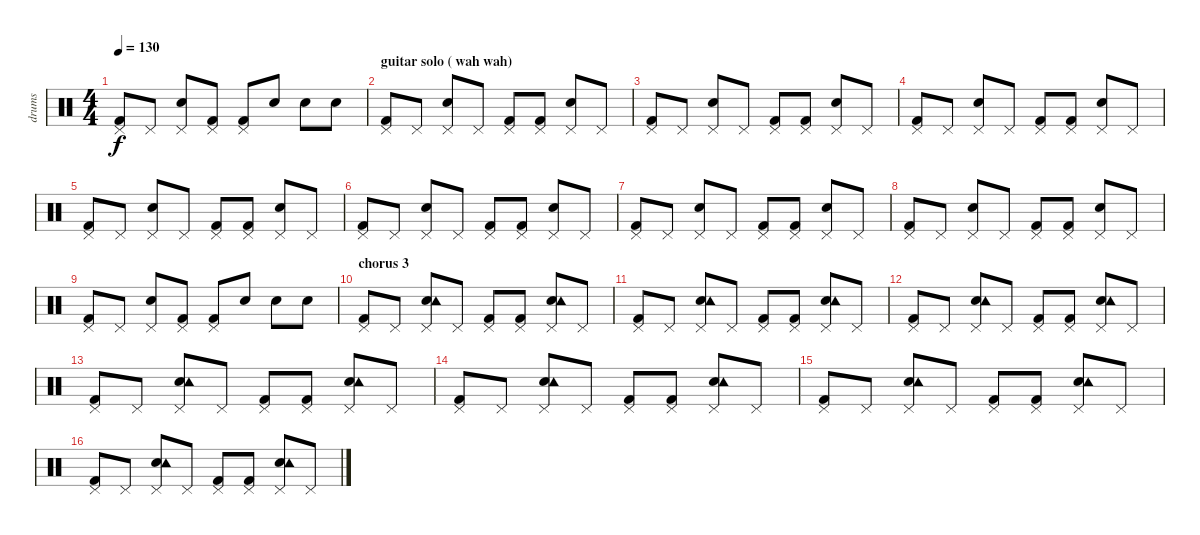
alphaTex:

\track ("drums" "drums") {instrument percussion}
\staff {score}
\articulation defaults
\ts (4 4)
\tempo 130
\clef neutral
\ks c
("Kick (hit) 2" "Pedal Hi-Hat (hit)").8{dy f} "Pedal Hi-Hat (hit)".8 ("Snare (hit) 2" "Pedal Hi-Hat (hit)").8 ("Kick (hit) 2" "Pedal Hi-Hat (hit)").8 ("Kick (hit) 2" "Pedal Hi-Hat (hit)").8 "Snare (hit) 2"{tr (38 16)}.8 "Snare (hit) 2"{tr (38 16)}.8 "Snare (hit) 2"{tr (38 16)}.8 |
\section ("" "guitar solo ( wah wah)")
("Kick (hit) 2" "Pedal Hi-Hat (hit)").8 "Pedal Hi-Hat (hit)".8 ("Snare (hit) 2" "Pedal Hi-Hat (hit)").8 "Pedal Hi-Hat (hit)".8 ("Kick (hit) 2" "Pedal Hi-Hat (hit)").8 ("Kick (hit) 2" "Pedal Hi-Hat (hit)").8 ("Snare (hit) 2" "Pedal Hi-Hat (hit)").8 "Pedal Hi-Hat (hit)".8 |
("Kick (hit) 2" "Pedal Hi-Hat (hit)").8 "Pedal Hi-Hat (hit)".8 ("Snare (hit) 2" "Pedal Hi-Hat (hit)").8 "Pedal Hi-Hat (hit)".8 ("Kick (hit) 2" "Pedal Hi-Hat (hit)").8 ("Kick (hit) 2" "Pedal Hi-Hat (hit)").8 ("Snare (hit) 2" "Pedal Hi-Hat (hit)").8 "Pedal Hi-Hat (hit)".8 |
("Kick (hit) 2" "Pedal Hi-Hat (hit)").8 "Pedal Hi-Hat (hit)".8 ("Snare (hit) 2" "Pedal Hi-Hat (hit)").8 "Pedal Hi-Hat (hit)".8 ("Kick (hit) 2" "Pedal Hi-Hat (hit)").8 ("Kick (hit) 2" "Pedal Hi-Hat (hit)").8 ("Snare (hit) 2" "Pedal Hi-Hat (hit)").8 "Pedal Hi-Hat (hit)".8 |
("Kick (hit) 2" "Pedal Hi-Hat (hit)").8 "Pedal Hi-Hat (hit)".8 ("Snare (hit) 2" "Pedal Hi-Hat (hit)").8 "Pedal Hi-Hat (hit)".8 ("Kick (hit) 2" "Pedal Hi-Hat (hit)").8 ("Kick (hit) 2" "Pedal Hi-Hat (hit)").8 ("Snare (hit) 2" "Pedal Hi-Hat (hit)").8 "Pedal Hi-Hat (hit)".8 |
("Kick (hit) 2" "Pedal Hi-Hat (hit)").8 "Pedal Hi-Hat (hit)".8 ("Snare (hit) 2" "Pedal Hi-Hat (hit)").8 "Pedal Hi-Hat (hit)".8 ("Kick (hit) 2" "Pedal Hi-Hat (hit)").8 ("Kick (hit) 2" "Pedal Hi-Hat (hit)").8 ("Snare (hit) 2" "Pedal Hi-Hat (hit)").8 "Pedal Hi-Hat (hit)".8 |
("Kick (hit) 2" "Pedal Hi-Hat (hit)").8 "Pedal Hi-Hat (hit)".8 ("Snare (hit) 2" "Pedal Hi-Hat (hit)").8 "Pedal Hi-Hat (hit)".8 ("Kick (hit) 2" "Pedal Hi-Hat (hit)").8 ("Kick (hit) 2" "Pedal Hi-Hat (hit)").8 ("Snare (hit) 2" "Pedal Hi-Hat (hit)").8 "Pedal Hi-Hat (hit)".8 |
("Kick (hit) 2" "Pedal Hi-Hat (hit)").8 "Pedal Hi-Hat (hit)".8 ("Snare (hit) 2" "Pedal Hi-Hat (hit)").8 "Pedal Hi-Hat (hit)".8 ("Kick (hit) 2" "Pedal Hi-Hat (hit)").8 ("Kick (hit) 2" "Pedal Hi-Hat (hit)").8 ("Snare (hit) 2" "Pedal Hi-Hat (hit)").8 "Pedal Hi-Hat (hit)".8 |
("Kick (hit) 2" "Pedal Hi-Hat (hit)").8 "Pedal Hi-Hat (hit)".8 ("Snare (hit) 2" "Pedal Hi-Hat (hit)").8 ("Kick (hit) 2" "Pedal Hi-Hat (hit)").8 ("Kick (hit) 2" "Pedal Hi-Hat (hit)").8 "Snare (hit) 2"{tr (38 16)}.8 "Snare (hit) 2"{tr (38 16)}.8 "Snare (hit) 2"{tr (38 16)}.8 |
\section ("" "chorus 3")
("Kick (hit) 2" "Pedal Hi-Hat (hit)").8 "Pedal Hi-Hat (hit)".8 ("Snare (hit) 2" "Tambourine (hit)" "Pedal Hi-Hat (hit)").8 "Pedal Hi-Hat (hit)".8 ("Kick (hit) 2" "Pedal Hi-Hat (hit)").8 ("Kick (hit) 2" "Pedal Hi-Hat (hit)").8 ("Snare (hit) 2" "Tambourine (hit)" "Pedal Hi-Hat (hit)").8 "Pedal Hi-Hat (hit)".8 |
("Kick (hit) 2" "Pedal Hi-Hat (hit)").8 "Pedal Hi-Hat (hit)".8 ("Snare (hit) 2" "Tambourine (hit)" "Pedal Hi-Hat (hit)").8 "Pedal Hi-Hat (hit)".8 ("Kick (hit) 2" "Pedal Hi-Hat (hit)").8 ("Kick (hit) 2" "Pedal Hi-Hat (hit)").8 ("Snare (hit) 2" "Tambourine (hit)" "Pedal Hi-Hat (hit)").8 "Pedal Hi-Hat (hit)".8 |
("Kick (hit) 2" "Pedal Hi-Hat (hit)").8 "Pedal Hi-Hat (hit)".8 ("Snare (hit) 2" "Tambourine (hit)" "Pedal Hi-Hat (hit)").8 "Pedal Hi-Hat (hit)".8 ("Kick (hit) 2" "Pedal Hi-Hat (hit)").8 ("Kick (hit) 2" "Pedal Hi-Hat (hit)").8 ("Snare (hit) 2" "Tambourine (hit)" "Pedal Hi-Hat (hit)").8 "Pedal Hi-Hat (hit)".8 |
("Kick (hit) 2" "Pedal Hi-Hat (hit)").8 "Pedal Hi-Hat (hit)".8 ("Snare (hit) 2" "Tambourine (hit)" "Pedal Hi-Hat (hit)").8 "Pedal Hi-Hat (hit)".8 ("Kick (hit) 2" "Pedal Hi-Hat (hit)").8 ("Kick (hit) 2" "Pedal Hi-Hat (hit)").8 ("Snare (hit) 2" "Tambourine (hit)" "Pedal Hi-Hat (hit)").8 "Pedal Hi-Hat (hit)".8 |
("Kick (hit) 2" "Pedal Hi-Hat (hit)").8 "Pedal Hi-Hat (hit)".8 ("Snare (hit) 2" "Tambourine (hit)" "Pedal Hi-Hat (hit)").8 "Pedal Hi-Hat (hit)".8 ("Kick (hit) 2" "Pedal Hi-Hat (hit)").8 ("Kick (hit) 2" "Pedal Hi-Hat (hit)").8 ("Snare (hit) 2" "Tambourine (hit)" "Pedal Hi-Hat (hit)").8 "Pedal Hi-Hat (hit)".8 |
("Kick (hit) 2" "Pedal Hi-Hat (hit)").8 "Pedal Hi-Hat (hit)".8 ("Snare (hit) 2" "Tambourine (hit)" "Pedal Hi-Hat (hit)").8 "Pedal Hi-Hat (hit)".8 ("Kick (hit) 2" "Pedal Hi-Hat (hit)").8 ("Kick (hit) 2" "Pedal Hi-Hat (hit)").8 ("Snare (hit) 2" "Tambourine (hit)" "Pedal Hi-Hat (hit)").8 "Pedal Hi-Hat (hit)".8 |
("Kick (hit) 2" "Pedal Hi-Hat (hit)").8 "Pedal Hi-Hat (hit)".8 ("Snare (hit) 2" "Tambourine (hit)" "Pedal Hi-Hat (hit)").8 "Pedal Hi-Hat (hit)".8 ("Kick (hit) 2" "Pedal Hi-Hat (hit)").8 ("Kick (hit) 2" "Pedal Hi-Hat (hit)").8 ("Snare (hit) 2" "Tambourine (hit)" "Pedal Hi-Hat (hit)").8 "Pedal Hi-Hat (hit)".8
